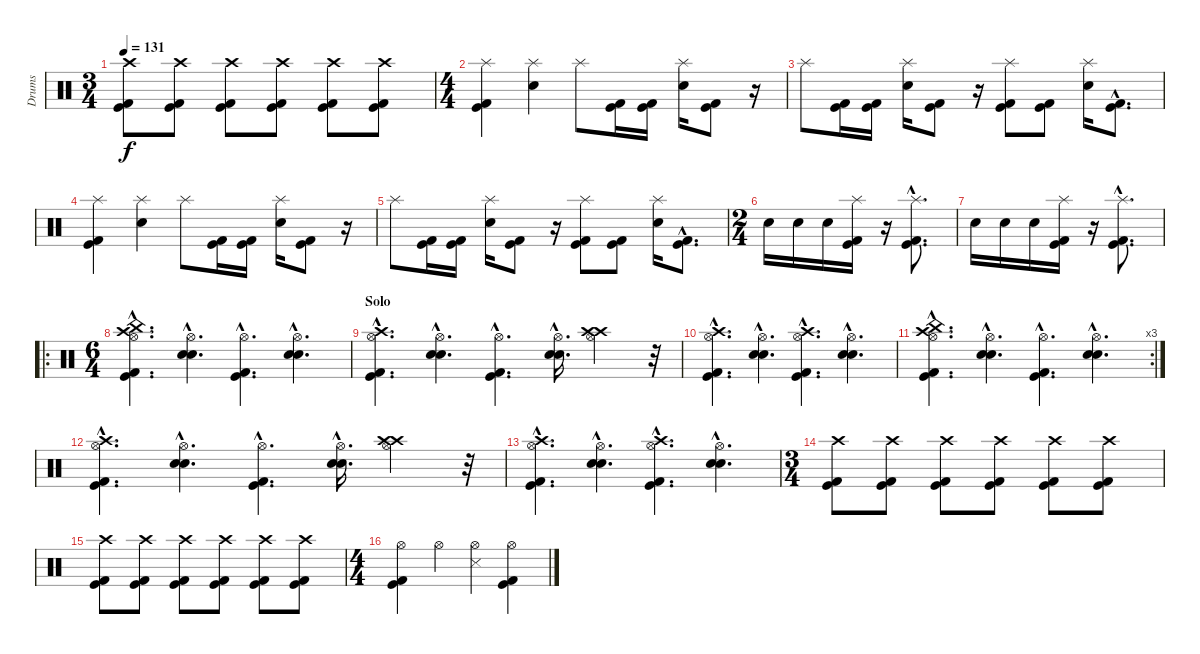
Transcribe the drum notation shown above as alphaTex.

\track ("Drums" "Drums") {instrument percussion}
\staff {score}
\articulation defaults
\ts (3 4)
\tempo 131
\clef neutral
\ks c
("Crash high (hit)" "Kick (hit) 2" "Kick (hit)").8{dy f} ("Crash high (hit)" "Kick (hit)" "Kick (hit) 2").8 ("Crash high (hit)" "Kick (hit)" "Kick (hit) 2").8 ("Crash high (hit)" "Kick (hit)" "Kick (hit) 2").8 ("Crash high (hit)" "Kick (hit) 2" "Kick (hit)").8 ("Crash high (hit)" "Kick (hit) 2" "Kick (hit)").8 |
\ts (4 4)
("Splash (hit)" "Kick (hit) 2" "Kick (hit)").4 ("Splash (hit)" "Snare (hit) 2").4 "Splash (hit)".8 ("Kick (hit) 2" "Kick (hit)").16 ("Kick (hit)" "Kick (hit) 2").16 ("Splash (hit)" "Snare (hit) 2").16 ("Kick (hit)" "Kick (hit) 2").8 r.16 |
"Splash (hit)".8 ("Kick (hit)" "Kick (hit) 2").16 ("Kick (hit) 2" "Kick (hit)").16 ("Splash (hit)" "Snare (hit) 2").16 ("Kick (hit) 2" "Kick (hit)").8 r.16 ("Splash (hit)" "Kick (hit) 2" "Kick (hit)").8 ("Kick (hit) 2" "Kick (hit)").8 ("Splash (hit)" "Snare (hit) 2").16 ("Kick (hit) 2"{hac} "Kick (hit)"{hac}).8{d} |
("Splash (hit)" "Kick (hit) 2" "Kick (hit)").4 ("Splash (hit)" "Snare (hit) 2").4 "Splash (hit)".8 ("Kick (hit) 2" "Kick (hit)").16 ("Kick (hit)" "Kick (hit) 2").16 ("Splash (hit)" "Snare (hit) 2").16 ("Kick (hit)" "Kick (hit) 2").8 r.16 |
"Splash (hit)".8 ("Kick (hit)" "Kick (hit) 2").16 ("Kick (hit) 2" "Kick (hit)").16 ("Splash (hit)" "Snare (hit) 2").16 ("Kick (hit) 2" "Kick (hit)").8 r.16 ("Splash (hit)" "Kick (hit) 2" "Kick (hit)").8 ("Kick (hit) 2" "Kick (hit)").8 ("Splash (hit)" "Snare (hit) 2").16 ("Kick (hit) 2"{hac} "Kick (hit)"{hac}).8{d} |
\ts (2 4)
"Snare (hit) 2".16 "Snare (hit) 2".16 "Snare (hit) 2".16 ("Splash (hit)" "Kick (hit)" "Kick (hit) 2").16 r.16 ("Splash (hit)"{hac} "Kick (hit)"{hac} "Kick (hit) 2"{hac}).8{d} |
"Snare (hit) 2".16 "Snare (hit) 2".16 "Snare (hit) 2".16 ("Splash (hit)" "Kick (hit)" "Kick (hit) 2").16 r.16 ("Splash (hit)"{hac} "Kick (hit)"{hac} "Kick (hit) 2"{hac}).8{d} |
\ro
\ts (6 4)
("China (hit)"{hac} "Hi-Hat (open)"{hac} "Crash high (hit)"{hac} "Kick (hit) 2"{hac} "Kick (hit)"{hac}).4{d} ("Hi-Hat (open)"{hac} "Snare (hit) 2"{hac} "Electric Snare (hit)"{hac}).4{d} ("Hi-Hat (open)"{hac} "Kick (hit)"{hac} "Kick (hit) 2"{hac}).4{d} ("Hi-Hat (open)"{hac} "Snare (hit) 2"{hac} "Electric Snare (hit)"{hac}).4{d} |
\section ("" "Solo")
("Hi-Hat (open)"{hac} "Crash high (hit)"{hac} "Kick (hit) 2"{hac} "Kick (hit)"{hac}).4{d} ("Hi-Hat (open)"{hac} "Snare (hit) 2"{hac} "Electric Snare (hit)"{hac}).4{d} ("Hi-Hat (open)"{hac} "Kick (hit)"{hac} "Kick (hit) 2"{hac}).4{d} ("Hi-Hat (open)"{hac} "Snare (hit) 2"{hac} "Electric Snare (hit)"{hac}).16{d} ("Hi-Hat (open)" "Crash high (hit)" "Crash high (hit)").4 r.32 |
("Hi-Hat (open)"{hac} "Crash high (hit)"{hac} "Kick (hit) 2"{hac} "Kick (hit)"{hac}).4{d} ("Hi-Hat (open)"{hac} "Snare (hit) 2"{hac} "Electric Snare (hit)"{hac}).4{d} ("Hi-Hat (open)"{hac} "Crash high (hit)"{hac} "Kick (hit)"{hac} "Kick (hit) 2"{hac}).4{d} ("Hi-Hat (open)"{hac} "Snare (hit) 2"{hac} "Electric Snare (hit)"{hac}).4{d} |
\rc 3
("China (hit)"{hac} "Hi-Hat (open)"{hac} "Crash high (hit)"{hac} "Kick (hit) 2"{hac} "Kick (hit)"{hac}).4{d} ("Hi-Hat (open)"{hac} "Snare (hit) 2"{hac} "Electric Snare (hit)"{hac}).4{d} ("Hi-Hat (open)"{hac} "Kick (hit)"{hac} "Kick (hit) 2"{hac}).4{d} ("Hi-Hat (open)"{hac} "Snare (hit) 2"{hac} "Electric Snare (hit)"{hac}).4{d} |
("Hi-Hat (open)"{hac} "Crash high (hit)"{hac} "Kick (hit) 2"{hac} "Kick (hit)"{hac}).4{d} ("Hi-Hat (open)"{hac} "Snare (hit) 2"{hac} "Electric Snare (hit)"{hac}).4{d} ("Hi-Hat (open)"{hac} "Kick (hit)"{hac} "Kick (hit) 2"{hac}).4{d} ("Hi-Hat (open)"{hac} "Snare (hit) 2"{hac} "Electric Snare (hit)"{hac}).16{d} ("Hi-Hat (open)" "Crash high (hit)" "Crash high (hit)").4 r.32 |
("Hi-Hat (open)"{hac} "Crash high (hit)"{hac} "Kick (hit) 2"{hac} "Kick (hit)"{hac}).4{d} ("Hi-Hat (open)"{hac} "Snare (hit) 2"{hac} "Electric Snare (hit)"{hac}).4{d} ("Hi-Hat (open)"{hac} "Crash high (hit)"{hac} "Kick (hit)"{hac} "Kick (hit) 2"{hac}).4{d} ("Hi-Hat (open)"{hac} "Snare (hit) 2"{hac} "Electric Snare (hit)"{hac}).4{d} |
\ts (3 4)
("Crash high (hit)" "Kick (hit) 2" "Kick (hit)").8 ("Crash high (hit)" "Kick (hit)" "Kick (hit) 2").8 ("Crash high (hit)" "Kick (hit)" "Kick (hit) 2").8 ("Crash high (hit)" "Kick (hit)" "Kick (hit) 2").8 ("Crash high (hit)" "Kick (hit) 2" "Kick (hit)").8 ("Crash high (hit)" "Kick (hit) 2" "Kick (hit)").8 |
("Crash high (hit)" "Kick (hit) 2" "Kick (hit)").8 ("Crash high (hit)" "Kick (hit)" "Kick (hit) 2").8 ("Crash high (hit)" "Kick (hit)" "Kick (hit) 2").8 ("Crash high (hit)" "Kick (hit)" "Kick (hit) 2").8 ("Crash high (hit)" "Kick (hit) 2" "Kick (hit)").8 ("Crash high (hit)" "Kick (hit) 2" "Kick (hit)").8 |
\ts (4 4)
("Hi-Hat (open)" "Kick (hit)" "Kick (hit) 2").4 "Hi-Hat (open)".4 ("Hi-Hat (open)" "Snare (side stick) 3").4 ("Hi-Hat (open)" "Kick (hit)" "Kick (hit) 2").4
